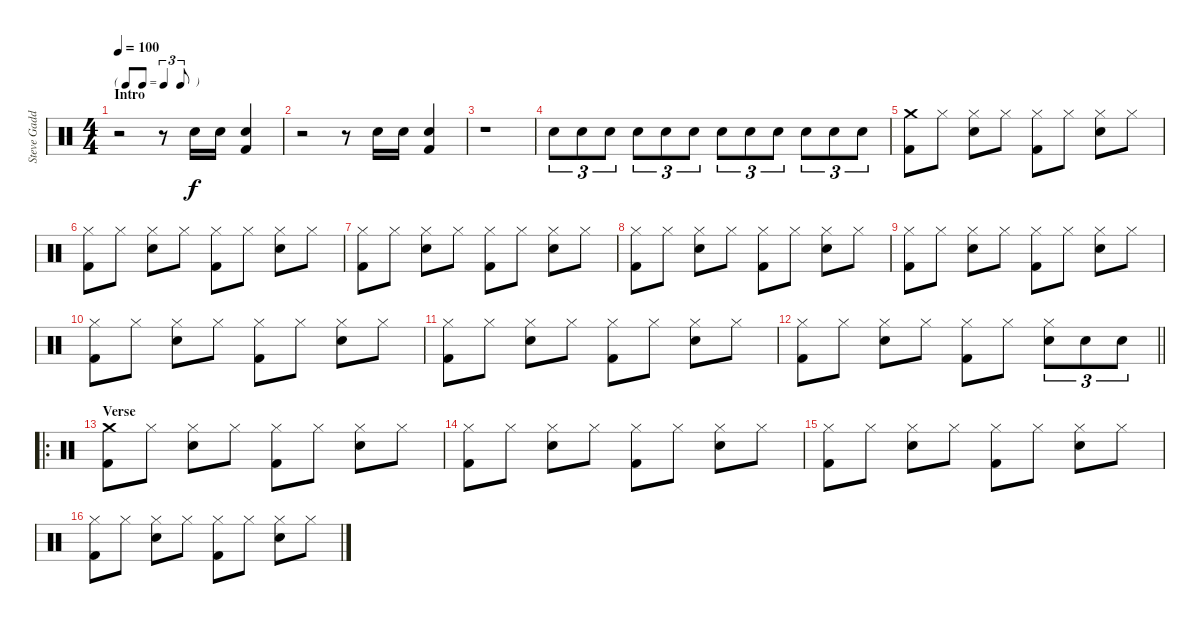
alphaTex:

\track ("Steve Gadd Drums" "Steve Gadd") {instrument percussion}
\staff {score}
\articulation defaults
\ts (4 4)
\tf triplet8th
\section ("" "Intro")
\tempo 100
\clef neutral
\ks c
r.2{dy f} r.8 "Snare (hit) 2".16 "Snare (hit) 2".16 ("Kick (hit) 2" "Snare (hit) 2").4 |
r.2 r.8 "Snare (hit) 2".16 "Snare (hit) 2".16 ("Kick (hit) 2" "Snare (hit) 2").4 |
r.1 |
"Snare (hit) 2".8{tu (3 2)} "Snare (hit) 2".8{tu (3 2)} "Snare (hit) 2".8{tu (3 2)} "Snare (hit) 2".8{tu (3 2)} "Snare (hit) 2".8{tu (3 2)} "Snare (hit) 2".8{tu (3 2)} "Snare (hit) 2".8{tu (3 2)} "Snare (hit) 2".8{tu (3 2)} "Snare (hit) 2".8{tu (3 2)} "Snare (hit) 2".8{tu (3 2)} "Snare (hit) 2".8{tu (3 2)} "Snare (hit) 2".8{tu (3 2)} |
("Crash medium (hit)" "Kick (hit) 2").8 "Hi-Hat (closed)".8 ("Hi-Hat (closed)" "Snare (hit) 2").8 "Hi-Hat (closed)".8 ("Hi-Hat (closed)" "Kick (hit) 2").8 "Hi-Hat (closed)".8 ("Hi-Hat (closed)" "Snare (hit) 2").8 "Hi-Hat (closed)".8 |
("Hi-Hat (closed)" "Kick (hit) 2").8 "Hi-Hat (closed)".8 ("Hi-Hat (closed)" "Snare (hit) 2").8 "Hi-Hat (closed)".8 ("Hi-Hat (closed)" "Kick (hit) 2").8 "Hi-Hat (closed)".8 ("Hi-Hat (closed)" "Snare (hit) 2").8 "Hi-Hat (closed)".8 |
("Hi-Hat (closed)" "Kick (hit) 2").8 "Hi-Hat (closed)".8 ("Hi-Hat (closed)" "Snare (hit) 2").8 "Hi-Hat (closed)".8 ("Hi-Hat (closed)" "Kick (hit) 2").8 "Hi-Hat (closed)".8 ("Hi-Hat (closed)" "Snare (hit) 2").8 "Hi-Hat (closed)".8 |
("Hi-Hat (closed)" "Kick (hit) 2").8 "Hi-Hat (closed)".8 ("Hi-Hat (closed)" "Snare (hit) 2").8 "Hi-Hat (closed)".8 ("Hi-Hat (closed)" "Kick (hit) 2").8 "Hi-Hat (closed)".8 ("Hi-Hat (closed)" "Snare (hit) 2").8 "Hi-Hat (closed)".8 |
("Hi-Hat (closed)" "Kick (hit) 2").8 "Hi-Hat (closed)".8 ("Hi-Hat (closed)" "Snare (hit) 2").8 "Hi-Hat (closed)".8 ("Hi-Hat (closed)" "Kick (hit) 2").8 "Hi-Hat (closed)".8 ("Hi-Hat (closed)" "Snare (hit) 2").8 "Hi-Hat (closed)".8 |
("Hi-Hat (closed)" "Kick (hit) 2").8 "Hi-Hat (closed)".8 ("Hi-Hat (closed)" "Snare (hit) 2").8 "Hi-Hat (closed)".8 ("Hi-Hat (closed)" "Kick (hit) 2").8 "Hi-Hat (closed)".8 ("Hi-Hat (closed)" "Snare (hit) 2").8 "Hi-Hat (closed)".8 |
("Hi-Hat (closed)" "Kick (hit) 2").8 "Hi-Hat (closed)".8 ("Hi-Hat (closed)" "Snare (hit) 2").8 "Hi-Hat (closed)".8 ("Hi-Hat (closed)" "Kick (hit) 2").8 "Hi-Hat (closed)".8 ("Hi-Hat (closed)" "Snare (hit) 2").8 "Hi-Hat (closed)".8 |
\barLineRight lightlight
("Hi-Hat (closed)" "Kick (hit) 2").8 "Hi-Hat (closed)".8 ("Hi-Hat (closed)" "Snare (hit) 2").8 "Hi-Hat (closed)".8 ("Hi-Hat (closed)" "Kick (hit) 2").8 "Hi-Hat (closed)".8 ("Hi-Hat (closed)" "Snare (hit) 2").8{tu (3 2)} "Snare (hit) 2".8{tu (3 2)} "Snare (hit) 2".8{tu (3 2)} |
\ro
\section ("" "Verse")
("Crash medium (hit)" "Kick (hit) 2").8 "Hi-Hat (closed)".8 ("Hi-Hat (closed)" "Snare (hit) 2").8 "Hi-Hat (closed)".8 ("Hi-Hat (closed)" "Kick (hit) 2").8 "Hi-Hat (closed)".8 ("Hi-Hat (closed)" "Snare (hit) 2").8 "Hi-Hat (closed)".8 |
("Hi-Hat (closed)" "Kick (hit) 2").8 "Hi-Hat (closed)".8 ("Hi-Hat (closed)" "Snare (hit) 2").8 "Hi-Hat (closed)".8 ("Hi-Hat (closed)" "Kick (hit) 2").8 "Hi-Hat (closed)".8 ("Hi-Hat (closed)" "Snare (hit) 2").8 "Hi-Hat (closed)".8 |
("Hi-Hat (closed)" "Kick (hit) 2").8 "Hi-Hat (closed)".8 ("Hi-Hat (closed)" "Snare (hit) 2").8 "Hi-Hat (closed)".8 ("Hi-Hat (closed)" "Kick (hit) 2").8 "Hi-Hat (closed)".8 ("Hi-Hat (closed)" "Snare (hit) 2").8 "Hi-Hat (closed)".8 |
("Hi-Hat (closed)" "Kick (hit) 2").8 "Hi-Hat (closed)".8 ("Hi-Hat (closed)" "Snare (hit) 2").8 "Hi-Hat (closed)".8 ("Hi-Hat (closed)" "Kick (hit) 2").8 "Hi-Hat (closed)".8 ("Hi-Hat (closed)" "Snare (hit) 2").8 "Hi-Hat (closed)".8
